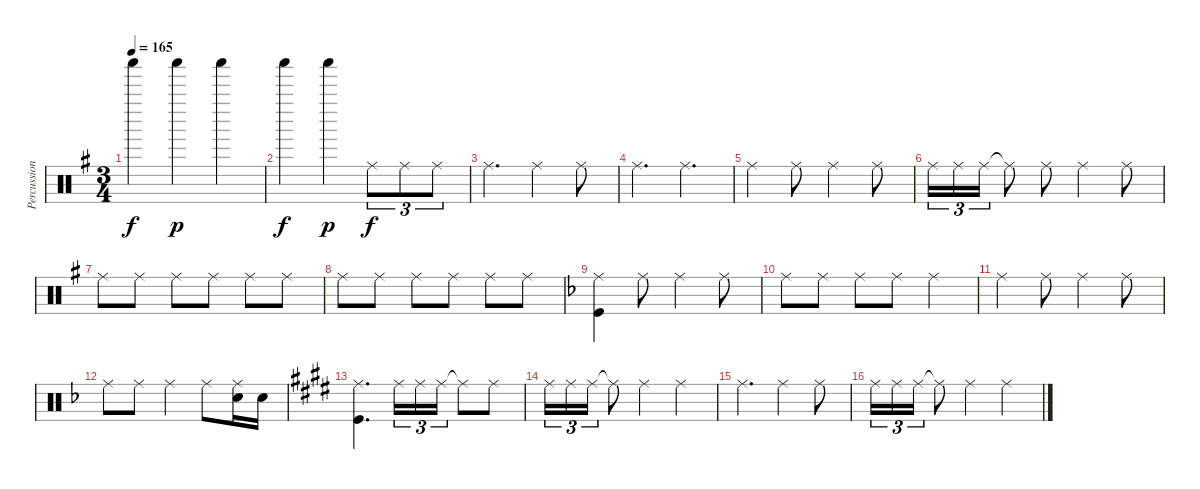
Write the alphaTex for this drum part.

\track ("Percussion" "Percussion") {instrument percussion}
\staff {score}
\articulation defaults
\ts (3 4)
\tempo 165
\clef neutral
\ks g "Shaker (hit)".4{dy f} "Shaker (hit)".4{dy p} "Shaker (hit)".4
|
"Shaker (hit)".4{dy f} "Shaker (hit)".4{dy p} "Ride (middle)".8{tu (3 2) dy f} "Ride (middle)".8{tu (3 2)} "Ride (middle)".8{tu (3 2)} |
"Ride (middle)".4{d} "Ride (middle)".4 "Ride (middle)".8 |
"Ride (middle)".4{d} "Ride (middle)".4{d} |
"Ride (middle)".4 "Ride (middle)".8 "Ride (middle)".4 "Ride (middle)".8 |
"Ride (middle)".16{tu (3 2)} "Ride (middle)".16{tu (3 2)} "Ride (middle)".16{tu (3 2)} "Ride (middle)"{t}.8 "Ride (middle)".8 "Ride (middle)".4 "Ride (middle)".8 |
"Ride (middle)".8 "Ride (middle)".8 "Ride (middle)".8 "Ride (middle)".8 "Ride (middle)".8 "Ride (middle)".8 |
"Ride (middle)".8 "Ride (middle)".8 "Ride (middle)".8 "Ride (middle)".8 "Ride (middle)".8 "Ride (middle)".8 |
\ks f
("Ride (middle)" "Kick (hit)").4 "Ride (middle)".8 "Ride (middle)".4 "Ride (middle)".8 |
"Ride (middle)".8 "Ride (middle)".8 "Ride (middle)".8 "Ride (middle)".8 "Ride (middle)".4 |
"Ride (middle)".4 "Ride (middle)".8 "Ride (middle)".4 "Ride (middle)".8 |
"Ride (middle)".8 "Ride (middle)".8 "Ride (middle)".4 "Ride (middle)".8 ("Ride (middle)" "Snare (hit) 2").16 "Snare (hit) 2".16 |
\ks e
("Ride (middle)" "Kick (hit)").4{d} "Ride (middle)".16{tu (3 2)} "Ride (middle)".16{tu (3 2)} "Ride (middle)".16{tu (3 2)} "Ride (middle)"{t}.8 "Ride (middle)".8 |
"Ride (middle)".16{tu (3 2)} "Ride (middle)".16{tu (3 2)} "Ride (middle)".16{tu (3 2)} "Ride (middle)"{t}.8 "Ride (middle)".4 "Ride (middle)".4 |
"Ride (middle)".4{d} "Ride (middle)".4 "Ride (middle)".8 |
"Ride (middle)".16{tu (3 2)} "Ride (middle)".16{tu (3 2)} "Ride (middle)".16{tu (3 2)} "Ride (middle)"{t}.8 "Ride (middle)".4 "Ride (middle)".4
